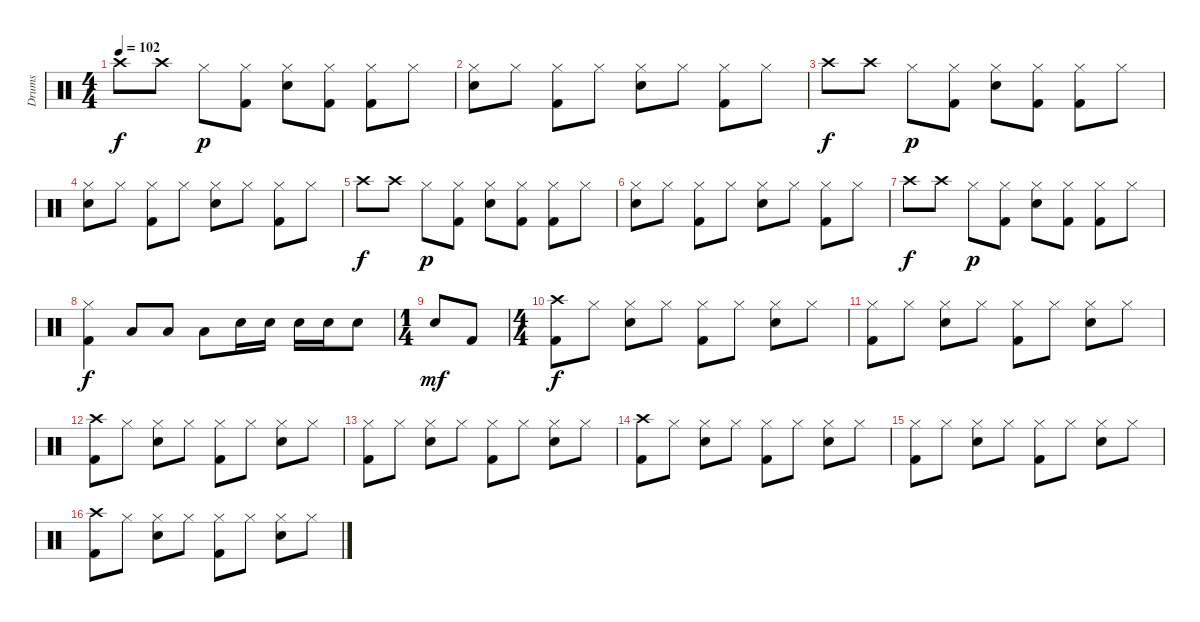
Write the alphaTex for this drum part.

\track ("Drums" "Drums") {instrument percussion}
\staff {score}
\articulation defaults
\ts (4 4)
\tempo 102
\clef neutral
\ks c "Crash high (hit)".8{dy f} "Crash high (hit)".8 "Hi-Hat (closed)".8{dy p}
("Kick (hit) 2" "Hi-Hat (closed)").8 ("Snare (hit) 2" "Hi-Hat (closed)").8 ("Kick (hit) 2" "Hi-Hat (closed)").8 ("Kick (hit) 2" "Hi-Hat (closed)").8 "Hi-Hat (closed)".8 |
("Snare (hit) 2" "Hi-Hat (closed)").8 "Hi-Hat (closed)".8 ("Kick (hit) 2" "Hi-Hat (closed)").8 "Hi-Hat (closed)".8 ("Snare (hit) 2" "Hi-Hat (closed)").8 "Hi-Hat (closed)".8 ("Kick (hit) 2" "Hi-Hat (closed)").8 "Hi-Hat (closed)".8 |
"Crash high (hit)".8{dy f} "Crash high (hit)".8 "Hi-Hat (closed)".8{dy p} ("Kick (hit) 2" "Hi-Hat (closed)").8 ("Snare (hit) 2" "Hi-Hat (closed)").8 ("Kick (hit) 2" "Hi-Hat (closed)").8 ("Kick (hit) 2" "Hi-Hat (closed)").8 "Hi-Hat (closed)".8 |
("Snare (hit) 2" "Hi-Hat (closed)").8 "Hi-Hat (closed)".8 ("Kick (hit) 2" "Hi-Hat (closed)").8 "Hi-Hat (closed)".8 ("Snare (hit) 2" "Hi-Hat (closed)").8 "Hi-Hat (closed)".8 ("Kick (hit) 2" "Hi-Hat (closed)").8 "Hi-Hat (closed)".8 |
"Crash high (hit)".8{dy f} "Crash high (hit)".8 "Hi-Hat (closed)".8{dy p} ("Kick (hit) 2" "Hi-Hat (closed)").8 ("Snare (hit) 2" "Hi-Hat (closed)").8 ("Kick (hit) 2" "Hi-Hat (closed)").8 ("Kick (hit) 2" "Hi-Hat (closed)").8 "Hi-Hat (closed)".8 |
("Snare (hit) 2" "Hi-Hat (closed)").8 "Hi-Hat (closed)".8 ("Kick (hit) 2" "Hi-Hat (closed)").8 "Hi-Hat (closed)".8 ("Snare (hit) 2" "Hi-Hat (closed)").8 "Hi-Hat (closed)".8 ("Kick (hit) 2" "Hi-Hat (closed)").8 "Hi-Hat (closed)".8 |
"Crash high (hit)".8{dy f} "Crash high (hit)".8 "Hi-Hat (closed)".8{dy p} ("Kick (hit) 2" "Hi-Hat (closed)").8 ("Snare (hit) 2" "Hi-Hat (closed)").8 ("Kick (hit) 2" "Hi-Hat (closed)").8 ("Kick (hit) 2" "Hi-Hat (closed)").8 "Hi-Hat (closed)".8 |
("Kick (hit) 2" "Hi-Hat (closed)").4{dy f} "Low Tom (hit)".8 "Low Tom (hit)".8 "Low Tom (hit)".8 "Snare (hit) 2".16 "Snare (hit) 2".16 "Snare (hit) 2".16 "Snare (hit) 2".16 "Snare (hit) 2".8 |
\ts (1 4)
"Snare (hit) 2".8{dy mf} "Kick (hit) 2".8 |
\ts (4 4)
("Kick (hit) 2" "Crash high (hit)").8{dy f} "Hi-Hat (closed)".8 ("Snare (hit) 2" "Hi-Hat (closed)").8 "Hi-Hat (closed)".8 ("Kick (hit) 2" "Hi-Hat (closed)").8 "Hi-Hat (closed)".8 ("Snare (hit) 2" "Hi-Hat (closed)").8 "Hi-Hat (closed)".8 |
("Kick (hit) 2" "Hi-Hat (closed)").8 "Hi-Hat (closed)".8 ("Snare (hit) 2" "Hi-Hat (closed)").8 "Hi-Hat (closed)".8 ("Kick (hit) 2" "Hi-Hat (closed)").8 "Hi-Hat (closed)".8 ("Snare (hit) 2" "Hi-Hat (closed)").8 "Hi-Hat (closed)".8 |
("Kick (hit) 2" "Crash high (hit)").8 "Hi-Hat (closed)".8 ("Snare (hit) 2" "Hi-Hat (closed)").8 "Hi-Hat (closed)".8 ("Kick (hit) 2" "Hi-Hat (closed)").8 "Hi-Hat (closed)".8 ("Snare (hit) 2" "Hi-Hat (closed)").8 "Hi-Hat (closed)".8 |
("Kick (hit) 2" "Hi-Hat (closed)").8 "Hi-Hat (closed)".8 ("Snare (hit) 2" "Hi-Hat (closed)").8 "Hi-Hat (closed)".8 ("Kick (hit) 2" "Hi-Hat (closed)").8 "Hi-Hat (closed)".8 ("Snare (hit) 2" "Hi-Hat (closed)").8 "Hi-Hat (closed)".8 |
("Kick (hit) 2" "Crash high (hit)").8 "Hi-Hat (closed)".8 ("Snare (hit) 2" "Hi-Hat (closed)").8 "Hi-Hat (closed)".8 ("Kick (hit) 2" "Hi-Hat (closed)").8 "Hi-Hat (closed)".8 ("Snare (hit) 2" "Hi-Hat (closed)").8 "Hi-Hat (closed)".8 |
("Kick (hit) 2" "Hi-Hat (closed)").8 "Hi-Hat (closed)".8 ("Snare (hit) 2" "Hi-Hat (closed)").8 "Hi-Hat (closed)".8 ("Kick (hit) 2" "Hi-Hat (closed)").8 "Hi-Hat (closed)".8 ("Snare (hit) 2" "Hi-Hat (closed)").8 "Hi-Hat (closed)".8 |
("Kick (hit) 2" "Crash high (hit)").8 "Hi-Hat (closed)".8 ("Snare (hit) 2" "Hi-Hat (closed)").8 "Hi-Hat (closed)".8 ("Kick (hit) 2" "Hi-Hat (closed)").8 "Hi-Hat (closed)".8 ("Snare (hit) 2" "Hi-Hat (closed)").8 "Hi-Hat (closed)".8
